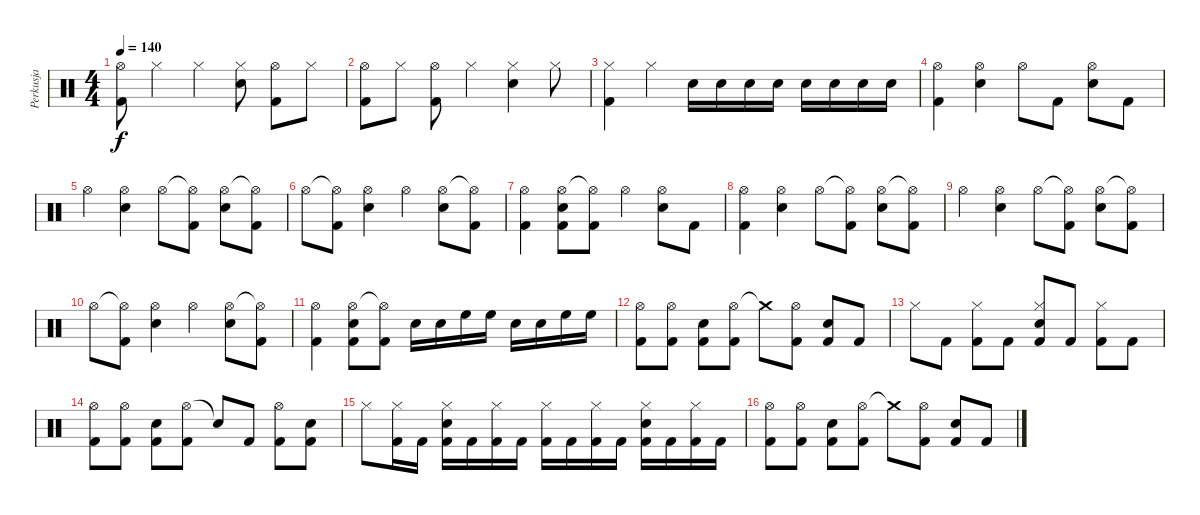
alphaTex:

\track ("Perkusja" "Perkusja") {instrument percussion}
\staff {score}
\articulation defaults
\ts (4 4)
\tempo 140
\clef neutral
\ks c
("Hi-Hat (open)" "Kick (hit) 2").8{dy f} "Hi-Hat (closed)".4 "Hi-Hat (closed)".4 ("Hi-Hat (closed)" "Snare (hit) 2").8 ("Hi-Hat (open)" "Kick (hit) 2").8 "Hi-Hat (closed)".8 |
("Hi-Hat (open)" "Kick (hit) 2").8 "Hi-Hat (closed)".8 ("Hi-Hat (open)" "Kick (hit) 2").8 "Hi-Hat (closed)".4 ("Hi-Hat (closed)" "Snare (hit) 2").4 "Hi-Hat (closed)".8 |
("Hi-Hat (closed)" "Kick (hit) 2").4 "Hi-Hat (closed)".4 "Snare (hit) 2".16 "Snare (hit) 2".16 "Snare (hit) 2".16 "Snare (hit) 2".16 "Snare (hit) 2".16 "Snare (hit) 2".16 "Snare (hit) 2".16 "Snare (hit) 2".16 |
("Hi-Hat (open)" "Kick (hit) 2").4 ("Hi-Hat (open)" "Snare (hit) 2").4 "Hi-Hat (open)".8 "Kick (hit) 2".8 ("Hi-Hat (open)" "Snare (hit) 2").8 "Kick (hit) 2".8 |
"Hi-Hat (open)".4 ("Hi-Hat (open)" "Snare (hit) 2").4 "Hi-Hat (open)".8 ("Hi-Hat (open)"{t} "Kick (hit) 2").8 ("Hi-Hat (open)" "Snare (hit) 2").8 ("Hi-Hat (open)"{t} "Kick (hit) 2").8 |
"Hi-Hat (open)".8 ("Hi-Hat (open)"{t} "Kick (hit) 2").8 ("Hi-Hat (open)" "Snare (hit) 2").4 "Hi-Hat (open)".4 ("Hi-Hat (open)" "Snare (hit) 2").8 ("Hi-Hat (open)"{t} "Kick (hit) 2").8 |
("Hi-Hat (open)" "Kick (hit) 2").4 ("Hi-Hat (open)" "Snare (hit) 2" "Kick (hit) 2").8 ("Hi-Hat (open)"{t} "Kick (hit) 2").8 "Hi-Hat (open)".4 ("Hi-Hat (open)" "Snare (hit) 2").8 "Kick (hit) 2".8 |
("Hi-Hat (open)" "Kick (hit) 2").4 ("Hi-Hat (open)" "Snare (hit) 2").4 "Hi-Hat (open)".8 ("Hi-Hat (open)"{t} "Kick (hit) 2").8 ("Hi-Hat (open)" "Snare (hit) 2").8 ("Hi-Hat (open)"{t} "Kick (hit) 2").8 |
"Hi-Hat (open)".4 ("Hi-Hat (open)" "Snare (hit) 2").4 "Hi-Hat (open)".8 ("Hi-Hat (open)"{t} "Kick (hit) 2").8 ("Hi-Hat (open)" "Snare (hit) 2").8 ("Hi-Hat (open)"{t} "Kick (hit) 2").8 |
"Hi-Hat (open)".8 ("Hi-Hat (open)"{t} "Kick (hit) 2").8 ("Hi-Hat (open)" "Snare (hit) 2").4 "Hi-Hat (open)".4 ("Hi-Hat (open)" "Snare (hit) 2").8 ("Hi-Hat (open)"{t} "Kick (hit) 2").8 |
("Hi-Hat (open)" "Kick (hit) 2").4 ("Hi-Hat (open)" "Snare (hit) 2" "Kick (hit) 2").8 ("Hi-Hat (open)"{t} "Kick (hit) 2").8 "Snare (hit) 2".16 "Snare (hit) 2".16 "High Floor Tom (hit)".16 "High Floor Tom (hit)".16 "Snare (hit) 2".16 "Snare (hit) 2".16 "High Floor Tom (hit)".16 "High Floor Tom (hit)".16 |
("Hi-Hat (open)" "Kick (hit) 2").8 ("Hi-Hat (open)" "Kick (hit) 2").8 ("Snare (hit) 2" "Kick (hit) 2").8 ("Hi-Hat (open)" "Kick (hit) 2").8 "Crash medium (hit)"{t}.8 ("Hi-Hat (open)" "Kick (hit) 2").8 ("Snare (hit) 2" "Kick (hit) 2").8 "Kick (hit) 2".8 |
"Hi-Hat (closed)".8 "Kick (hit) 2".8 ("Hi-Hat (closed)" "Kick (hit) 2").8 "Kick (hit) 2".8 ("Hi-Hat (closed)" "Snare (hit) 2" "Kick (hit) 2").8 "Kick (hit) 2".8 ("Hi-Hat (closed)" "Kick (hit) 2").8 "Kick (hit) 2".8 |
("Hi-Hat (open)" "Kick (hit) 2").8 ("Hi-Hat (open)" "Kick (hit) 2").8 ("Snare (hit) 2" "Kick (hit) 2").8 ("Hi-Hat (open)" "Kick (hit) 2").8 "Snare (hit)"{t}.8 "Kick (hit) 2".8 ("Hi-Hat (open)" "Kick (hit) 2").8 ("Snare (hit) 2" "Kick (hit) 2").8 |
"Hi-Hat (closed)".8 ("Hi-Hat (closed)" "Kick (hit) 2").16 "Kick (hit) 2".16 ("Hi-Hat (closed)" "Snare (hit) 2" "Kick (hit) 2").16 "Kick (hit) 2".16 ("Hi-Hat (closed)" "Kick (hit) 2").16 "Kick (hit) 2".16 ("Hi-Hat (closed)" "Kick (hit) 2").16 "Kick (hit) 2".16 ("Hi-Hat (closed)" "Kick (hit) 2").16 "Kick (hit) 2".16 ("Hi-Hat (closed)" "Snare (hit) 2" "Kick (hit) 2").16 "Kick (hit) 2".16 ("Hi-Hat (closed)" "Kick (hit) 2").16 "Kick (hit) 2".16 |
("Hi-Hat (open)" "Kick (hit) 2").8 ("Hi-Hat (open)" "Kick (hit) 2").8 ("Snare (hit) 2" "Kick (hit) 2").8 ("Hi-Hat (open)" "Kick (hit) 2").8 "Crash medium (hit)"{t}.8 ("Hi-Hat (open)" "Kick (hit) 2").8 ("Snare (hit) 2" "Kick (hit) 2").8 "Kick (hit) 2".8
